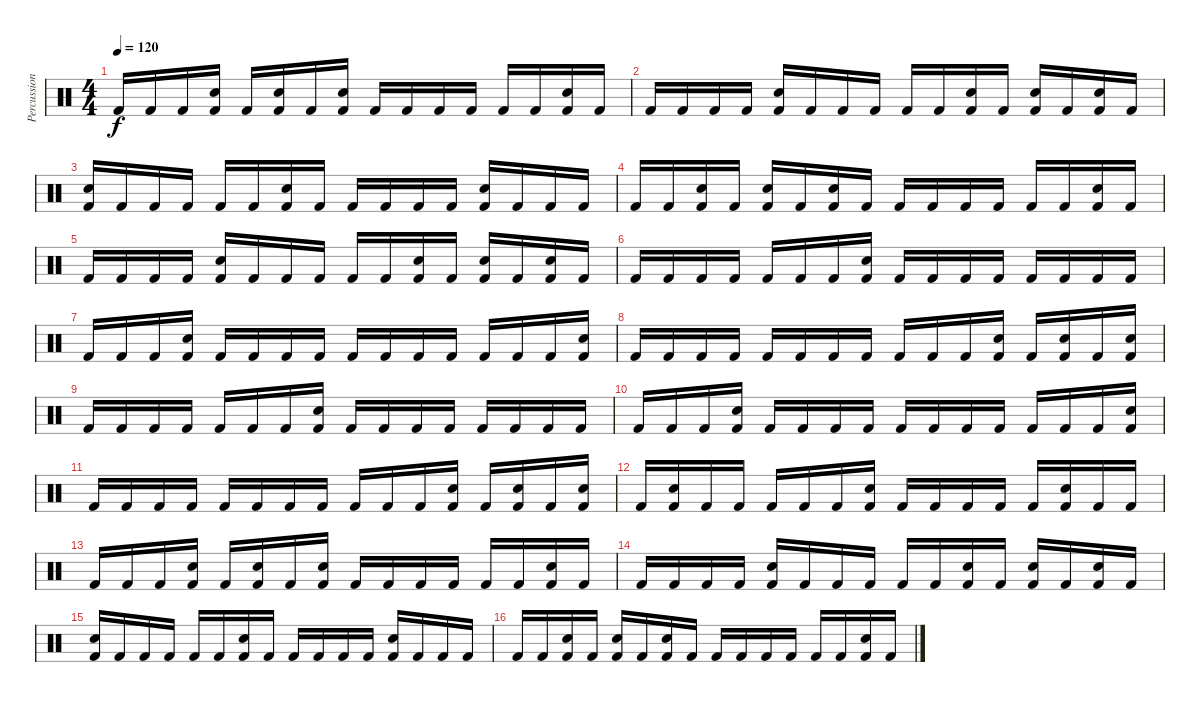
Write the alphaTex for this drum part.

\track ("Percussion" "Percussion") {instrument percussion}
\staff {score}
\articulation defaults
\ts (4 4)
\tempo 120
\clef neutral
\ks c "Kick (hit) 2".16{dy f} "Kick (hit) 2".16 "Kick (hit) 2".16
("Electric Snare (hit)" "Kick (hit) 2").16 "Kick (hit) 2".16 ("Electric Snare (hit)" "Kick (hit) 2").16 "Kick (hit) 2".16 ("Electric Snare (hit)" "Kick (hit) 2").16 "Kick (hit) 2".16 "Kick (hit) 2".16 "Kick (hit) 2".16 "Kick (hit) 2".16 "Kick (hit) 2".16 "Kick (hit) 2".16 ("Electric Snare (hit)" "Kick (hit) 2").16 "Kick (hit) 2".16 |
"Kick (hit) 2".16 "Kick (hit) 2".16 "Kick (hit) 2".16 "Kick (hit) 2".16 ("Electric Snare (hit)" "Kick (hit) 2").16 "Kick (hit) 2".16 "Kick (hit) 2".16 "Kick (hit) 2".16 "Kick (hit) 2".16 "Kick (hit) 2".16 ("Electric Snare (hit)" "Kick (hit) 2").16 "Kick (hit) 2".16 ("Electric Snare (hit)" "Kick (hit) 2").16 "Kick (hit) 2".16 ("Electric Snare (hit)" "Kick (hit) 2").16 "Kick (hit) 2".16 |
("Electric Snare (hit)" "Kick (hit) 2").16 "Kick (hit) 2".16 "Kick (hit) 2".16 "Kick (hit) 2".16 "Kick (hit) 2".16 "Kick (hit) 2".16 ("Electric Snare (hit)" "Kick (hit) 2").16 "Kick (hit) 2".16 "Kick (hit) 2".16 "Kick (hit) 2".16 "Kick (hit) 2".16 "Kick (hit) 2".16 ("Electric Snare (hit)" "Kick (hit) 2").16 "Kick (hit) 2".16 "Kick (hit) 2".16 "Kick (hit) 2".16 |
"Kick (hit) 2".16 "Kick (hit) 2".16 ("Electric Snare (hit)" "Kick (hit) 2").16 "Kick (hit) 2".16 ("Electric Snare (hit)" "Kick (hit) 2").16 "Kick (hit) 2".16 ("Electric Snare (hit)" "Kick (hit) 2").16 "Kick (hit) 2".16 "Kick (hit) 2".16 "Kick (hit) 2".16 "Kick (hit) 2".16 "Kick (hit) 2".16 "Kick (hit) 2".16 "Kick (hit) 2".16 ("Electric Snare (hit)" "Kick (hit) 2").16 "Kick (hit) 2".16 |
"Kick (hit) 2".16 "Kick (hit) 2".16 "Kick (hit) 2".16 "Kick (hit) 2".16 ("Electric Snare (hit)" "Kick (hit) 2").16 "Kick (hit) 2".16 "Kick (hit) 2".16 "Kick (hit) 2".16 "Kick (hit) 2".16 "Kick (hit) 2".16 ("Electric Snare (hit)" "Kick (hit) 2").16 "Kick (hit) 2".16 ("Electric Snare (hit)" "Kick (hit) 2").16 "Kick (hit) 2".16 ("Electric Snare (hit)" "Kick (hit) 2").16 "Kick (hit) 2".16 |
"Kick (hit) 2".16 "Kick (hit) 2".16 "Kick (hit) 2".16 "Kick (hit) 2".16 "Kick (hit) 2".16 "Kick (hit) 2".16 "Kick (hit) 2".16 ("Electric Snare (hit)" "Kick (hit) 2").16 "Kick (hit) 2".16 "Kick (hit) 2".16 "Kick (hit) 2".16 "Kick (hit) 2".16 "Kick (hit) 2".16 "Kick (hit) 2".16 "Kick (hit) 2".16 "Kick (hit) 2".16 |
"Kick (hit) 2".16 "Kick (hit) 2".16 "Kick (hit) 2".16 ("Electric Snare (hit)" "Kick (hit) 2").16 "Kick (hit) 2".16 "Kick (hit) 2".16 "Kick (hit) 2".16 "Kick (hit) 2".16 "Kick (hit) 2".16 "Kick (hit) 2".16 "Kick (hit) 2".16 "Kick (hit) 2".16 "Kick (hit) 2".16 "Kick (hit) 2".16 "Kick (hit) 2".16 ("Electric Snare (hit)" "Kick (hit) 2").16 |
"Kick (hit) 2".16 "Kick (hit) 2".16 "Kick (hit) 2".16 "Kick (hit) 2".16 "Kick (hit) 2".16 "Kick (hit) 2".16 "Kick (hit) 2".16 "Kick (hit) 2".16 "Kick (hit) 2".16 "Kick (hit) 2".16 "Kick (hit) 2".16 ("Electric Snare (hit)" "Kick (hit) 2").16 "Kick (hit) 2".16 ("Electric Snare (hit)" "Kick (hit) 2").16 "Kick (hit) 2".16 ("Electric Snare (hit)" "Kick (hit) 2").16 |
"Kick (hit) 2".16 "Kick (hit) 2".16 "Kick (hit) 2".16 "Kick (hit) 2".16 "Kick (hit) 2".16 "Kick (hit) 2".16 "Kick (hit) 2".16 ("Electric Snare (hit)" "Kick (hit) 2").16 "Kick (hit) 2".16 "Kick (hit) 2".16 "Kick (hit) 2".16 "Kick (hit) 2".16 "Kick (hit) 2".16 "Kick (hit) 2".16 "Kick (hit) 2".16 "Kick (hit) 2".16 |
"Kick (hit) 2".16 "Kick (hit) 2".16 "Kick (hit) 2".16 ("Electric Snare (hit)" "Kick (hit) 2").16 "Kick (hit) 2".16 "Kick (hit) 2".16 "Kick (hit) 2".16 "Kick (hit) 2".16 "Kick (hit) 2".16 "Kick (hit) 2".16 "Kick (hit) 2".16 "Kick (hit) 2".16 "Kick (hit) 2".16 "Kick (hit) 2".16 "Kick (hit) 2".16 ("Electric Snare (hit)" "Kick (hit) 2").16 |
"Kick (hit) 2".16 "Kick (hit) 2".16 "Kick (hit) 2".16 "Kick (hit) 2".16 "Kick (hit) 2".16 "Kick (hit) 2".16 "Kick (hit) 2".16 "Kick (hit) 2".16 "Kick (hit) 2".16 "Kick (hit) 2".16 "Kick (hit) 2".16 ("Electric Snare (hit)" "Kick (hit) 2").16 "Kick (hit) 2".16 ("Electric Snare (hit)" "Kick (hit) 2").16 "Kick (hit) 2".16 ("Electric Snare (hit)" "Kick (hit) 2").16 |
"Kick (hit) 2".16 ("Electric Snare (hit)" "Kick (hit) 2").16 "Kick (hit) 2".16 "Kick (hit) 2".16 "Kick (hit) 2".16 "Kick (hit) 2".16 "Kick (hit) 2".16 ("Electric Snare (hit)" "Kick (hit) 2").16 "Kick (hit) 2".16 "Kick (hit) 2".16 "Kick (hit) 2".16 "Kick (hit) 2".16 "Kick (hit) 2".16 ("Electric Snare (hit)" "Kick (hit) 2").16 "Kick (hit) 2".16 "Kick (hit) 2".16 |
"Kick (hit) 2".16 "Kick (hit) 2".16 "Kick (hit) 2".16 ("Electric Snare (hit)" "Kick (hit) 2").16 "Kick (hit) 2".16 ("Electric Snare (hit)" "Kick (hit) 2").16 "Kick (hit) 2".16 ("Electric Snare (hit)" "Kick (hit) 2").16 "Kick (hit) 2".16 "Kick (hit) 2".16 "Kick (hit) 2".16 "Kick (hit) 2".16 "Kick (hit) 2".16 "Kick (hit) 2".16 ("Electric Snare (hit)" "Kick (hit) 2").16 "Kick (hit) 2".16 |
"Kick (hit) 2".16 "Kick (hit) 2".16 "Kick (hit) 2".16 "Kick (hit) 2".16 ("Electric Snare (hit)" "Kick (hit) 2").16 "Kick (hit) 2".16 "Kick (hit) 2".16 "Kick (hit) 2".16 "Kick (hit) 2".16 "Kick (hit) 2".16 ("Electric Snare (hit)" "Kick (hit) 2").16 "Kick (hit) 2".16 ("Electric Snare (hit)" "Kick (hit) 2").16 "Kick (hit) 2".16 ("Electric Snare (hit)" "Kick (hit) 2").16 "Kick (hit) 2".16 |
("Electric Snare (hit)" "Kick (hit) 2").16 "Kick (hit) 2".16 "Kick (hit) 2".16 "Kick (hit) 2".16 "Kick (hit) 2".16 "Kick (hit) 2".16 ("Electric Snare (hit)" "Kick (hit) 2").16 "Kick (hit) 2".16 "Kick (hit) 2".16 "Kick (hit) 2".16 "Kick (hit) 2".16 "Kick (hit) 2".16 ("Electric Snare (hit)" "Kick (hit) 2").16 "Kick (hit) 2".16 "Kick (hit) 2".16 "Kick (hit) 2".16 |
"Kick (hit) 2".16 "Kick (hit) 2".16 ("Electric Snare (hit)" "Kick (hit) 2").16 "Kick (hit) 2".16 ("Electric Snare (hit)" "Kick (hit) 2").16 "Kick (hit) 2".16 ("Electric Snare (hit)" "Kick (hit) 2").16 "Kick (hit) 2".16 "Kick (hit) 2".16 "Kick (hit) 2".16 "Kick (hit) 2".16 "Kick (hit) 2".16 "Kick (hit) 2".16 "Kick (hit) 2".16 ("Electric Snare (hit)" "Kick (hit) 2").16 "Kick (hit) 2".16
